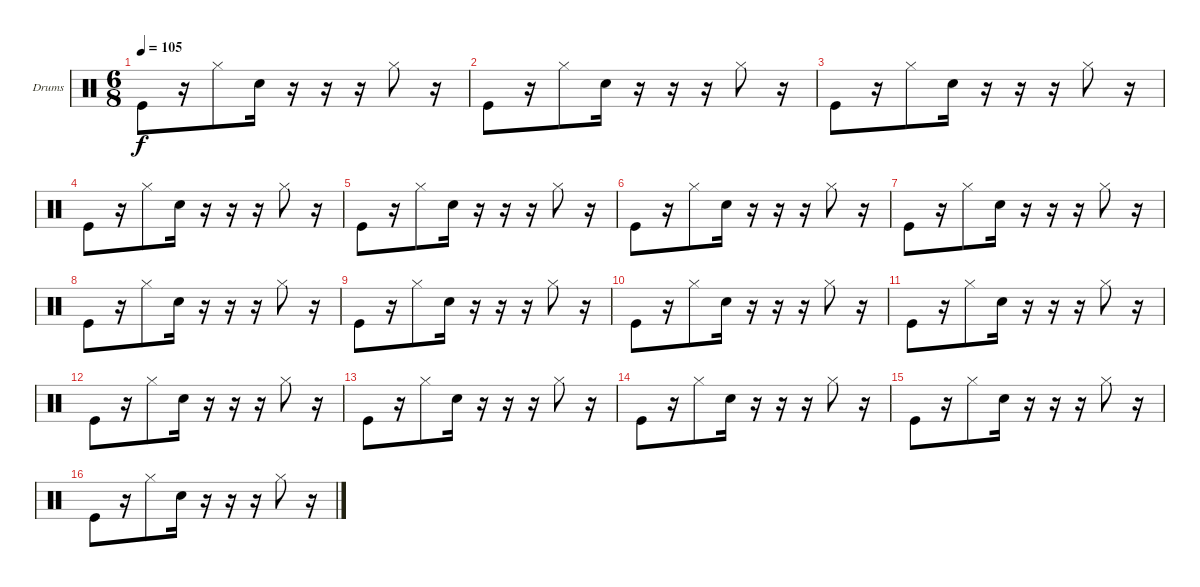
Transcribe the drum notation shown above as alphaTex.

\defaultSystemsLayout 4
\bracketExtendMode nobrackets
\firstSystemTrackNameOrientation horizontal
\otherSystemsTrackNameOrientation horizontal
\track ("Drumkit" "Drums") {instrument percussion}
\staff {score}
\articulation defaults
\ts (6 8)
\tempo 105
\clef neutral
\ks c "Kick (hit)".8{dy f}
r.16 "Hi-Hat (closed)".8 "Snare (hit) 2".16 r.16 r.16 r.16 "Hi-Hat (closed)".8 r.16 |
"Kick (hit)".8 r.16 "Hi-Hat (closed)".8 "Snare (hit) 2".16 r.16 r.16 r.16 "Hi-Hat (closed)".8 r.16 |
"Kick (hit)".8 r.16 "Hi-Hat (closed)".8 "Snare (hit) 2".16 r.16 r.16 r.16 "Hi-Hat (closed)".8 r.16 |
"Kick (hit)".8 r.16 "Hi-Hat (closed)".8 "Snare (hit) 2".16 r.16 r.16 r.16 "Hi-Hat (closed)".8 r.16 |
"Kick (hit)".8 r.16 "Hi-Hat (closed)".8 "Snare (hit) 2".16 r.16 r.16 r.16 "Hi-Hat (closed)".8 r.16 |
"Kick (hit)".8 r.16 "Hi-Hat (closed)".8 "Snare (hit) 2".16 r.16 r.16 r.16 "Hi-Hat (closed)".8 r.16 |
"Kick (hit)".8 r.16 "Hi-Hat (closed)".8 "Snare (hit) 2".16 r.16 r.16 r.16 "Hi-Hat (closed)".8 r.16 |
"Kick (hit)".8 r.16 "Hi-Hat (closed)".8 "Snare (hit) 2".16 r.16 r.16 r.16 "Hi-Hat (closed)".8 r.16 |
"Kick (hit)".8 r.16 "Hi-Hat (closed)".8 "Snare (hit) 2".16 r.16 r.16 r.16 "Hi-Hat (closed)".8 r.16 |
"Kick (hit)".8 r.16 "Hi-Hat (closed)".8 "Snare (hit) 2".16 r.16 r.16 r.16 "Hi-Hat (closed)".8 r.16 |
"Kick (hit)".8 r.16 "Hi-Hat (closed)".8 "Snare (hit) 2".16 r.16 r.16 r.16 "Hi-Hat (closed)".8 r.16 |
"Kick (hit)".8 r.16 "Hi-Hat (closed)".8 "Snare (hit) 2".16 r.16 r.16 r.16 "Hi-Hat (closed)".8 r.16 |
"Kick (hit)".8 r.16 "Hi-Hat (closed)".8 "Snare (hit) 2".16 r.16 r.16 r.16 "Hi-Hat (closed)".8 r.16 |
"Kick (hit)".8 r.16 "Hi-Hat (closed)".8 "Snare (hit) 2".16 r.16 r.16 r.16 "Hi-Hat (closed)".8 r.16 |
"Kick (hit)".8 r.16 "Hi-Hat (closed)".8 "Snare (hit) 2".16 r.16 r.16 r.16 "Hi-Hat (closed)".8 r.16 |
"Kick (hit)".8 r.16 "Hi-Hat (closed)".8 "Snare (hit) 2".16 r.16 r.16 r.16 "Hi-Hat (closed)".8 r.16
